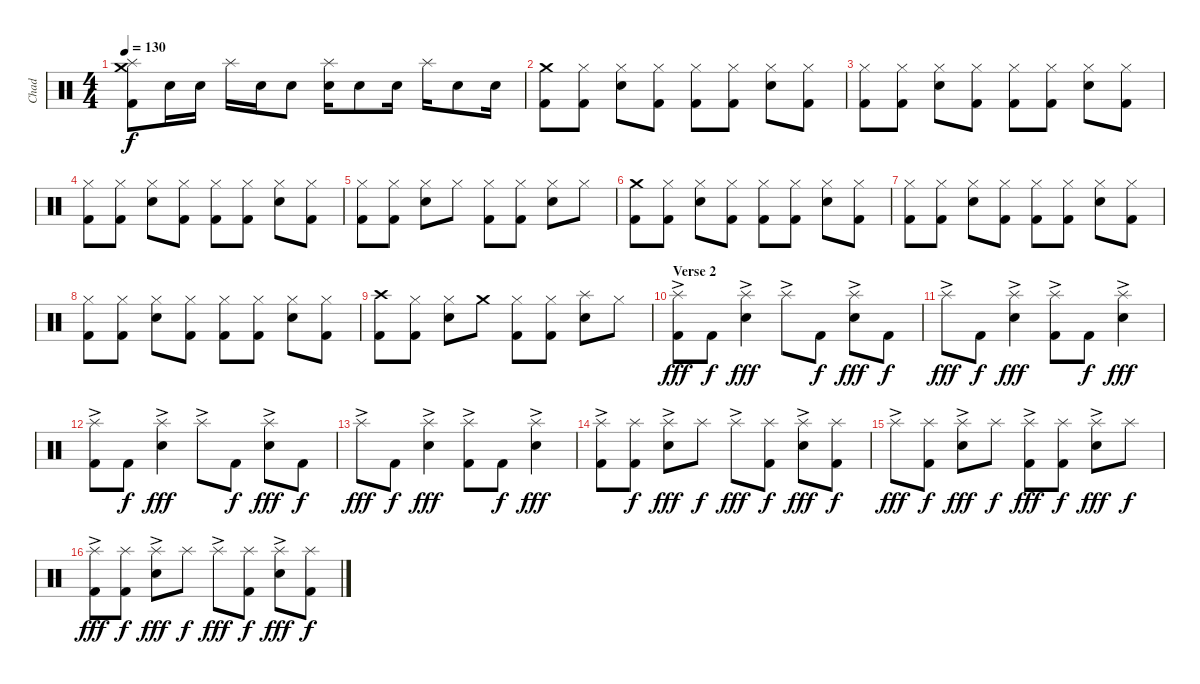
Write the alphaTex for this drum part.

\track ("Chad" "Chad") {instrument percussion}
\staff {score}
\articulation defaults
\ts (4 4)
\tempo 130
\clef neutral
\ks c
("Crash medium (hit)" "Splash (hit)" "Kick (hit) 2").8{dy f} "Snare (hit) 2".16 "Snare (hit) 2".16 "Splash (hit)".16 "Snare (hit) 2".16 "Snare (hit) 2".8 ("Splash (hit)" "Snare (hit) 2").16 "Snare (hit) 2".8 "Snare (hit) 2".16 "Splash (hit)".16 "Snare (hit) 2".8 "Snare (hit) 2".16 |
("Crash medium (hit)" "Kick (hit) 2").8 ("Hi-Hat (closed)" "Kick (hit) 2").8 ("Hi-Hat (closed)" "Snare (hit) 2").8 ("Hi-Hat (closed)" "Kick (hit) 2").8 ("Hi-Hat (closed)" "Kick (hit) 2").8 ("Hi-Hat (closed)" "Kick (hit) 2").8 ("Hi-Hat (closed)" "Snare (hit) 2").8 ("Hi-Hat (closed)" "Kick (hit) 2").8 |
("Hi-Hat (closed)" "Kick (hit) 2").8 ("Hi-Hat (closed)" "Kick (hit) 2").8 ("Hi-Hat (closed)" "Snare (hit) 2").8 ("Hi-Hat (closed)" "Kick (hit) 2").8 ("Hi-Hat (closed)" "Kick (hit) 2").8 ("Hi-Hat (closed)" "Kick (hit) 2").8 ("Hi-Hat (closed)" "Snare (hit) 2").8 ("Hi-Hat (closed)" "Kick (hit) 2").8 |
("Hi-Hat (closed)" "Kick (hit) 2").8 ("Hi-Hat (closed)" "Kick (hit) 2").8 ("Hi-Hat (closed)" "Snare (hit) 2").8 ("Hi-Hat (closed)" "Kick (hit) 2").8 ("Hi-Hat (closed)" "Kick (hit) 2").8 ("Hi-Hat (closed)" "Kick (hit) 2").8 ("Hi-Hat (closed)" "Snare (hit) 2").8 ("Hi-Hat (closed)" "Kick (hit) 2").8 |
("Hi-Hat (closed)" "Kick (hit) 2").8 ("Hi-Hat (closed)" "Kick (hit) 2").8 ("Hi-Hat (closed)" "Snare (hit) 2").8 "Hi-Hat (closed)".8 ("Hi-Hat (closed)" "Kick (hit) 2").8 ("Hi-Hat (closed)" "Kick (hit) 2").8 ("Hi-Hat (closed)" "Snare (hit) 2").8 "Hi-Hat (closed)".8 |
("Crash medium (hit)" "Kick (hit) 2").8 ("Hi-Hat (closed)" "Kick (hit) 2").8 ("Hi-Hat (closed)" "Snare (hit) 2").8 ("Hi-Hat (closed)" "Kick (hit) 2").8 ("Hi-Hat (closed)" "Kick (hit) 2").8 ("Hi-Hat (closed)" "Kick (hit) 2").8 ("Hi-Hat (closed)" "Snare (hit) 2").8 ("Hi-Hat (closed)" "Kick (hit) 2").8 |
("Hi-Hat (closed)" "Kick (hit) 2").8 ("Hi-Hat (closed)" "Kick (hit) 2").8 ("Hi-Hat (closed)" "Snare (hit) 2").8 ("Hi-Hat (closed)" "Kick (hit) 2").8 ("Hi-Hat (closed)" "Kick (hit) 2").8 ("Hi-Hat (closed)" "Kick (hit) 2").8 ("Hi-Hat (closed)" "Snare (hit) 2").8 ("Hi-Hat (closed)" "Kick (hit) 2").8 |
("Hi-Hat (closed)" "Kick (hit) 2").8 ("Hi-Hat (closed)" "Kick (hit) 2").8 ("Hi-Hat (closed)" "Snare (hit) 2").8 ("Hi-Hat (closed)" "Kick (hit) 2").8 ("Hi-Hat (closed)" "Kick (hit) 2").8 ("Hi-Hat (closed)" "Kick (hit) 2").8 ("Hi-Hat (closed)" "Snare (hit) 2").8 ("Hi-Hat (closed)" "Kick (hit) 2").8 |
("Crash high (hit)" "Kick (hit) 2").8 ("Hi-Hat (closed)" "Kick (hit) 2").8 ("Hi-Hat (closed)" "Snare (hit) 2").8 "Crash medium (hit)".8 ("Hi-Hat (closed)" "Kick (hit) 2").8 ("Hi-Hat (closed)" "Kick (hit) 2").8 ("Splash (hit)" "Snare (hit) 2").8 "Hi-Hat (closed)".8 |
\section ("" "Verse 2")
("Splash (hit)"{ac} "Kick (hit) 2").8{dy fff} "Kick (hit) 2".8{dy f} ("Splash (hit)"{ac} "Snare (hit) 2").4{dy fff} "Splash (hit)"{ac}.8 "Kick (hit) 2".8{dy f} ("Splash (hit)"{ac} "Snare (hit) 2").8{dy fff} "Kick (hit) 2".8{dy f} |
"Splash (hit)"{ac}.8{dy fff} "Kick (hit) 2".8{dy f} ("Splash (hit)"{ac} "Snare (hit) 2").4{dy fff} ("Splash (hit)"{ac} "Kick (hit) 2").8 "Kick (hit) 2".8{dy f} ("Splash (hit)"{ac} "Snare (hit) 2").4{dy fff} |
("Splash (hit)"{ac} "Kick (hit) 2").8 "Kick (hit) 2".8{dy f} ("Splash (hit)"{ac} "Snare (hit) 2").4{dy fff} "Splash (hit)"{ac}.8 "Kick (hit) 2".8{dy f} ("Splash (hit)"{ac} "Snare (hit) 2").8{dy fff} "Kick (hit) 2".8{dy f} |
"Splash (hit)"{ac}.8{dy fff} "Kick (hit) 2".8{dy f} ("Splash (hit)"{ac} "Snare (hit) 2").4{dy fff} ("Splash (hit)"{ac} "Kick (hit) 2").8 "Kick (hit) 2".8{dy f} ("Splash (hit)"{ac} "Snare (hit) 2").4{dy fff} |
("Splash (hit)"{ac} "Kick (hit) 2").8 ("Splash (hit)" "Kick (hit) 2").8{dy f} ("Splash (hit)"{ac} "Snare (hit) 2").8{dy fff} "Splash (hit)".8{dy f} "Splash (hit)"{ac}.8{dy fff} ("Splash (hit)" "Kick (hit) 2").8{dy f} ("Splash (hit)"{ac} "Snare (hit) 2").8{dy fff} ("Splash (hit)" "Kick (hit) 2").8{dy f} |
"Splash (hit)"{ac}.8{dy fff} ("Splash (hit)" "Kick (hit) 2").8{dy f} ("Splash (hit)"{ac} "Snare (hit) 2").8{dy fff} "Splash (hit)".8{dy f} ("Splash (hit)"{ac} "Kick (hit) 2").8{dy fff} ("Splash (hit)" "Kick (hit) 2").8{dy f} ("Splash (hit)"{ac} "Snare (hit) 2").8{dy fff} "Splash (hit)".8{dy f} |
("Splash (hit)"{ac} "Kick (hit) 2").8{dy fff} ("Splash (hit)" "Kick (hit) 2").8{dy f} ("Splash (hit)"{ac} "Snare (hit) 2").8{dy fff} "Splash (hit)".8{dy f} "Splash (hit)"{ac}.8{dy fff} ("Splash (hit)" "Kick (hit) 2").8{dy f} ("Splash (hit)"{ac} "Snare (hit) 2").8{dy fff} ("Splash (hit)" "Kick (hit) 2").8{dy f}
